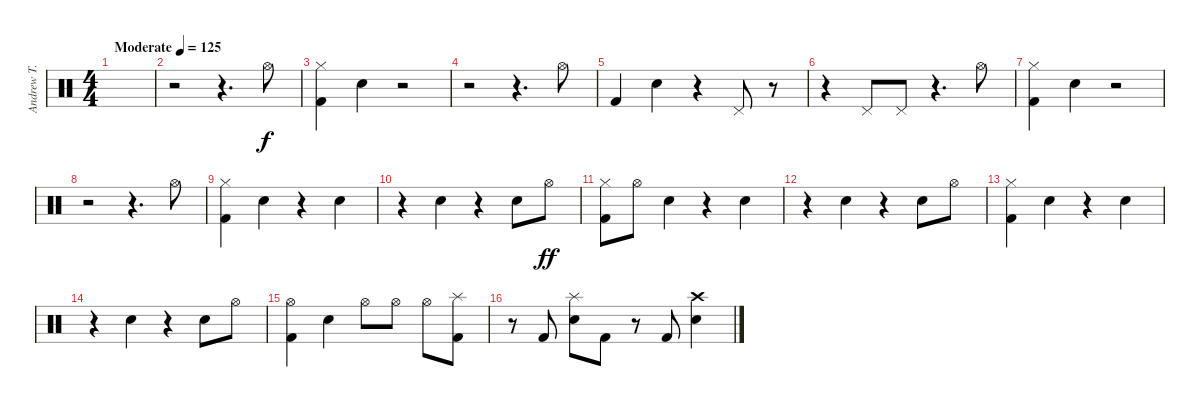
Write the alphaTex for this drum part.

\track ("Andrew T." "Andrew T.") {instrument percussion}
\staff {score}
\articulation defaults
\ts (4 4)
\tempo (125 "Moderate")
\clef neutral
\ks c
|
r.2 r.4{d} "Hi-Hat (open)".8 |
("Hi-Hat (closed)" "Kick (hit) 2").4 "Electric Snare (hit)".4 r.2 |
r.2 r.4{d} "Hi-Hat (open)".8 |
"Kick (hit) 2".4 "Electric Snare (hit)".4 r.4 "Pedal Hi-Hat (hit)".8 r.8 |
r.4 "Pedal Hi-Hat (hit)".8 "Pedal Hi-Hat (hit)".8 r.4{d} "Hi-Hat (open)".8 |
("Hi-Hat (closed)" "Kick (hit) 2").4 "Electric Snare (hit)".4 r.2 |
r.2 r.4{d} "Hi-Hat (open)".8 |
("Hi-Hat (closed)" "Kick (hit) 2").4 "Electric Snare (hit)".4 r.4 "Electric Snare (hit)".4 |
r.4 "Electric Snare (hit)".4 r.4 "Electric Snare (hit)".8 "Hi-Hat (open)".8{dy ff} |
("Kick (hit) 2" "Hi-Hat (closed)").8 "Hi-Hat (open)".8 "Electric Snare (hit)".4 r.4 "Electric Snare (hit)".4 |
r.4 "Electric Snare (hit)".4 r.4 "Electric Snare (hit)".8 "Hi-Hat (open)".8 |
("Kick (hit) 2" "Hi-Hat (closed)").4 "Electric Snare (hit)".4 r.4 "Electric Snare (hit)".4 |
r.4 "Electric Snare (hit)".4 r.4 "Electric Snare (hit)".8 "Hi-Hat (open)".8 |
("Hi-Hat (open)" "Kick (hit) 2").4 "Electric Snare (hit)".4 "Hi-Hat (open)".8 "Hi-Hat (open)".8 "Hi-Hat (open)".8 ("Splash (hit)" "Kick (hit) 2").8 |
r.8 "Kick (hit) 2".8 ("Splash (hit)" "Electric Snare (hit)").8 "Kick (hit) 2".8 r.8 "Kick (hit) 2".8 ("Crash high (hit)" "Electric Snare (hit)").4
